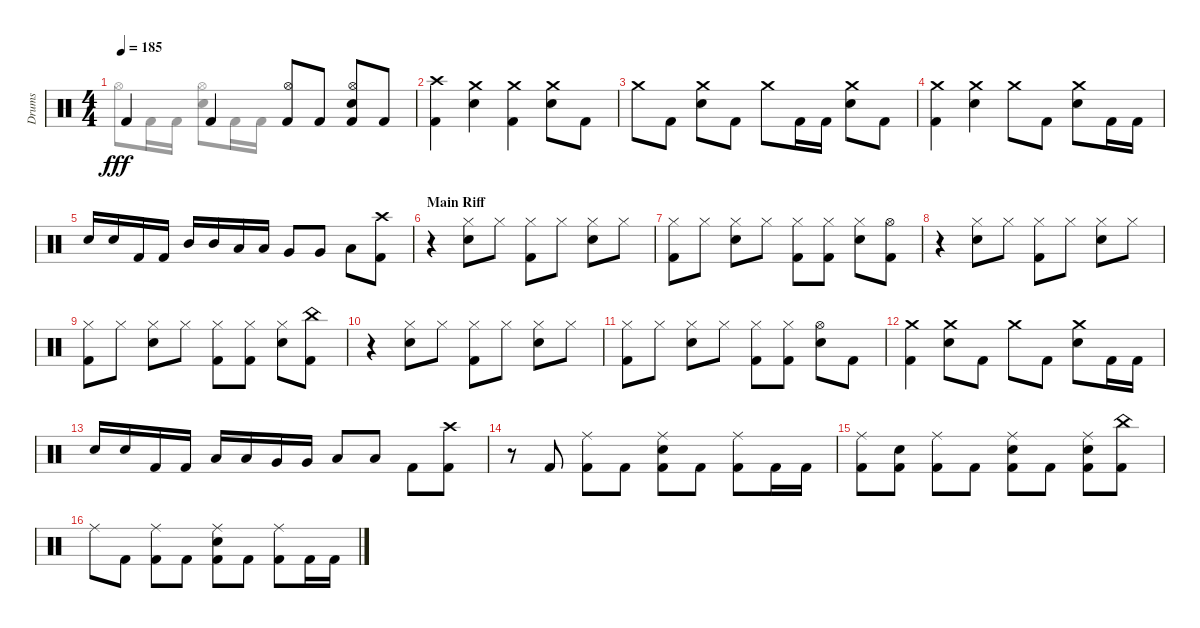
\track ("Drums" "Drums") {instrument percussion}
\staff {score}
\articulation defaults
\voice
\ts (4 4)
\tempo 185
\clef neutral
\ks aminor "Kick (hit) 2".4{dy fff} "Kick (hit) 2".4
("Kick (hit) 2" "Hi-Hat (open)").8 "Kick (hit) 2".8 ("Snare (hit) 2" "Kick (hit) 2" "Hi-Hat (open)").8 "Kick (hit) 2".8 |
("Crash high (hit)" "Kick (hit) 2").4 ("Crash medium (hit)" "Snare (hit) 2").4 ("Kick (hit) 2" "Crash medium (hit)").4 ("Snare (hit) 2" "Crash medium (hit)").8 "Kick (hit) 2".8 |
"Crash medium (hit)".8 "Kick (hit) 2".8 ("Crash medium (hit)" "Snare (hit) 2").8 "Kick (hit) 2".8 "Crash medium (hit)".8 "Kick (hit) 2".16 "Kick (hit) 2".16 ("Snare (hit) 2" "Crash medium (hit)").8 "Kick (hit) 2".8 |
("Crash medium (hit)" "Kick (hit) 2").4 ("Crash medium (hit)" "Snare (hit) 2").4 "Crash medium (hit)".8 "Kick (hit) 2".8 ("Snare (hit) 2" "Crash medium (hit)").8 "Kick (hit) 2".16 "Kick (hit) 2".16 |
"Snare (hit) 2".16 "Snare (hit) 2".16 "Kick (hit) 2".16 "Kick (hit) 2".16 "Mid Tom (hit)".16 "Mid Tom (hit)".16 "Low Tom (hit)".16 "Low Tom (hit)".16 "Very Low Tom (hit)".8 "Very Low Tom (hit)".8 "Low Floor Tom (hit)".8 ("Crash high (hit)" "Kick (hit) 2").8 |
\section ("" "Main Riff")
r.4 ("Hi-Hat (closed)" "Snare (hit) 2").8 "Hi-Hat (closed)".8 ("Kick (hit) 2" "Hi-Hat (closed)").8 "Hi-Hat (closed)".8 ("Hi-Hat (closed)" "Snare (hit) 2").8 "Hi-Hat (closed)".8 |
("Hi-Hat (closed)" "Kick (hit) 2").8 "Hi-Hat (closed)".8 ("Hi-Hat (closed)" "Snare (hit) 2").8 "Hi-Hat (closed)".8 ("Kick (hit) 2" "Hi-Hat (closed)").8 ("Kick (hit) 2" "Hi-Hat (closed)").8 ("Hi-Hat (closed)" "Snare (hit) 2").8 ("Hi-Hat (open)" "Kick (hit) 2").8 |
r.4 ("Hi-Hat (closed)" "Snare (hit) 2").8 "Hi-Hat (closed)".8 ("Kick (hit) 2" "Hi-Hat (closed)").8 "Hi-Hat (closed)".8 ("Snare (hit) 2" "Hi-Hat (closed)").8 "Hi-Hat (closed)".8 |
("Kick (hit) 2" "Hi-Hat (closed)").8 "Hi-Hat (closed)".8 ("Hi-Hat (closed)" "Snare (hit) 2").8 "Hi-Hat (closed)".8 ("Kick (hit) 2" "Hi-Hat (closed)").8 ("Kick (hit) 2" "Hi-Hat (closed)").8 ("Snare (hit) 2" "Hi-Hat (closed)").8 ("Kick (hit) 2" "China (hit)").8 |
r.4 ("Hi-Hat (closed)" "Snare (hit) 2").8 "Hi-Hat (closed)".8 ("Kick (hit) 2" "Hi-Hat (closed)").8 "Hi-Hat (closed)".8 ("Hi-Hat (closed)" "Snare (hit) 2").8 "Hi-Hat (closed)".8 |
("Kick (hit) 2" "Hi-Hat (closed)").8 "Hi-Hat (closed)".8 ("Snare (hit) 2" "Hi-Hat (closed)").8 "Hi-Hat (closed)".8 ("Kick (hit) 2" "Hi-Hat (closed)").8 ("Kick (hit) 2" "Hi-Hat (closed)").8 ("Hi-Hat (open)" "Snare (hit) 2").8 "Kick (hit) 2".8 |
("Crash medium (hit)" "Kick (hit) 2").4 ("Crash medium (hit)" "Snare (hit) 2").8 "Kick (hit) 2".8 "Crash medium (hit)".8 "Kick (hit) 2".8 ("Crash medium (hit)" "Snare (hit) 2").8 "Kick (hit) 2".16 "Kick (hit) 2".16 |
"Snare (hit) 2".16 "Snare (hit) 2".16 "Kick (hit) 2".16 "Kick (hit) 2".16 "Low Tom (hit)".16 "Low Tom (hit)".16 "Very Low Tom (hit)".16 "Very Low Tom (hit)".16 "Low Floor Tom (hit)".8 "Low Floor Tom (hit)".8 "Kick (hit) 2".8 ("Kick (hit) 2" "Crash high (hit)").8 |
r.8 "Kick (hit) 2".8 ("Ride (middle)" "Kick (hit) 2").8 "Kick (hit) 2".8 ("Snare (hit) 2" "Ride (middle)" "Kick (hit) 2").8 "Kick (hit) 2".8 ("Kick (hit) 2" "Ride (middle)").8 "Kick (hit) 2".16 "Kick (hit) 2".16 |
("Kick (hit) 2" "Ride (middle)").8 ("Snare (hit) 2" "Kick (hit) 2").8 ("Kick (hit) 2" "Ride (middle)").8 "Kick (hit) 2".8 ("Snare (hit) 2" "Kick (hit) 2" "Ride (middle)").8 "Kick (hit) 2".8 ("Snare (hit) 2" "Kick (hit) 2" "Ride (middle)").8 ("China (hit)" "Kick (hit) 2").8 |
"Ride (middle)".8 "Kick (hit) 2".8 ("Ride (middle)" "Kick (hit) 2").8 "Kick (hit) 2".8 ("Snare (hit) 2" "Ride (middle)" "Kick (hit) 2").8 "Kick (hit) 2".8 ("Kick (hit) 2" "Ride (middle)").8 "Kick (hit) 2".16 "Kick (hit) 2".16
\voice
\clef neutral
\ottava regular
\simile none
\ks aminor "Hi-Hat (open)".8{dy fff} "Kick (hit) 2".16 "Kick (hit) 2".16
("Snare (hit) 2" "Hi-Hat (open)").8 "Kick (hit) 2".16 "Kick (hit) 2".16 |
|
|
|
|
|
|
|
|
|
|
|
|
|
|
